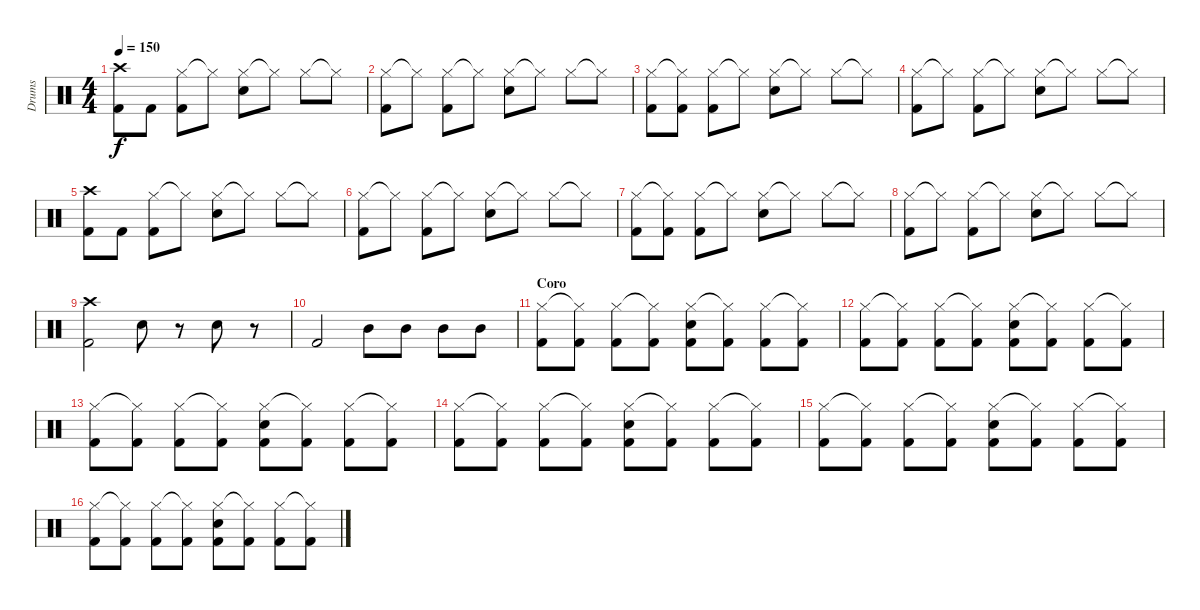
\track ("Drums" "Drums") {instrument percussion}
\staff {score}
\articulation defaults
\ts (4 4)
\tempo 150
\clef neutral
\ks c
("Kick (hit) 2" "Crash high (hit)").8{dy f} "Kick (hit) 2".8 ("Hi-Hat (closed)" "Kick (hit) 2").8 "Hi-Hat (closed)"{t}.8 ("Hi-Hat (closed)" "Snare (hit) 2").8 "Hi-Hat (closed)"{t}.8 "Hi-Hat (closed)".8 "Hi-Hat (closed)"{t}.8 |
("Hi-Hat (closed)" "Kick (hit) 2").8 "Hi-Hat (closed)"{t}.8 ("Hi-Hat (closed)" "Kick (hit) 2").8 "Hi-Hat (closed)"{t}.8 ("Hi-Hat (closed)" "Snare (hit) 2").8 "Hi-Hat (closed)"{t}.8 "Hi-Hat (closed)".8 "Hi-Hat (closed)"{t}.8 |
("Hi-Hat (closed)" "Kick (hit) 2").8 ("Hi-Hat (closed)"{t} "Kick (hit) 2").8 ("Hi-Hat (closed)" "Kick (hit) 2").8 "Hi-Hat (closed)"{t}.8 ("Hi-Hat (closed)" "Snare (hit) 2").8 "Hi-Hat (closed)"{t}.8 "Hi-Hat (closed)".8 "Hi-Hat (closed)"{t}.8 |
("Hi-Hat (closed)" "Kick (hit) 2").8 "Hi-Hat (closed)"{t}.8 ("Hi-Hat (closed)" "Kick (hit) 2").8 "Hi-Hat (closed)"{t}.8 ("Hi-Hat (closed)" "Snare (hit) 2").8 "Hi-Hat (closed)"{t}.8 "Hi-Hat (closed)".8 "Hi-Hat (closed)"{t}.8 |
("Kick (hit) 2" "Crash high (hit)").8 "Kick (hit) 2".8 ("Hi-Hat (closed)" "Kick (hit) 2").8 "Hi-Hat (closed)"{t}.8 ("Hi-Hat (closed)" "Snare (hit) 2").8 "Hi-Hat (closed)"{t}.8 "Hi-Hat (closed)".8 "Hi-Hat (closed)"{t}.8 |
("Hi-Hat (closed)" "Kick (hit) 2").8 "Hi-Hat (closed)"{t}.8 ("Hi-Hat (closed)" "Kick (hit) 2").8 "Hi-Hat (closed)"{t}.8 ("Hi-Hat (closed)" "Snare (hit) 2").8 "Hi-Hat (closed)"{t}.8 "Hi-Hat (closed)".8 "Hi-Hat (closed)"{t}.8 |
("Hi-Hat (closed)" "Kick (hit) 2").8 ("Hi-Hat (closed)"{t} "Kick (hit) 2").8 ("Hi-Hat (closed)" "Kick (hit) 2").8 "Hi-Hat (closed)"{t}.8 ("Hi-Hat (closed)" "Snare (hit) 2").8 "Hi-Hat (closed)"{t}.8 "Hi-Hat (closed)".8 "Hi-Hat (closed)"{t}.8 |
("Hi-Hat (closed)" "Kick (hit) 2").8 "Hi-Hat (closed)"{t}.8 ("Hi-Hat (closed)" "Kick (hit) 2").8 "Hi-Hat (closed)"{t}.8 ("Hi-Hat (closed)" "Snare (hit) 2").8 "Hi-Hat (closed)"{t}.8 "Hi-Hat (closed)".8 "Hi-Hat (closed)"{t}.8 |
("Kick (hit) 2" "Crash high (hit)").2 "Snare (hit) 2".8 r.8 "Snare (hit) 2".8 r.8 |
"Kick (hit) 2".2 "Mid Tom (hit)".8 "Mid Tom (hit)".8 "Mid Tom (hit)".8 "Mid Tom (hit)".8 |
\section ("" "Coro ")
("Hi-Hat (closed)" "Kick (hit) 2").8 ("Hi-Hat (closed)"{t} "Kick (hit) 2").8 ("Hi-Hat (closed)" "Kick (hit) 2").8 ("Hi-Hat (closed)"{t} "Kick (hit) 2").8 ("Hi-Hat (closed)" "Kick (hit) 2" "Snare (hit) 2").8 ("Hi-Hat (closed)"{t} "Kick (hit) 2").8 ("Hi-Hat (closed)" "Kick (hit) 2").8 ("Hi-Hat (closed)"{t} "Kick (hit) 2").8 |
("Hi-Hat (closed)" "Kick (hit) 2").8 ("Hi-Hat (closed)"{t} "Kick (hit) 2").8 ("Hi-Hat (closed)" "Kick (hit) 2").8 ("Hi-Hat (closed)"{t} "Kick (hit) 2").8 ("Hi-Hat (closed)" "Kick (hit) 2" "Snare (hit) 2").8 ("Hi-Hat (closed)"{t} "Kick (hit) 2").8 ("Hi-Hat (closed)" "Kick (hit) 2").8 ("Hi-Hat (closed)"{t} "Kick (hit) 2").8 |
("Hi-Hat (closed)" "Kick (hit) 2").8 ("Hi-Hat (closed)"{t} "Kick (hit) 2").8 ("Hi-Hat (closed)" "Kick (hit) 2").8 ("Hi-Hat (closed)"{t} "Kick (hit) 2").8 ("Hi-Hat (closed)" "Kick (hit) 2" "Snare (hit) 2").8 ("Hi-Hat (closed)"{t} "Kick (hit) 2").8 ("Hi-Hat (closed)" "Kick (hit) 2").8 ("Hi-Hat (closed)"{t} "Kick (hit) 2").8 |
("Hi-Hat (closed)" "Kick (hit) 2").8 ("Hi-Hat (closed)"{t} "Kick (hit) 2").8 ("Hi-Hat (closed)" "Kick (hit) 2").8 ("Hi-Hat (closed)"{t} "Kick (hit) 2").8 ("Hi-Hat (closed)" "Kick (hit) 2" "Snare (hit) 2").8 ("Hi-Hat (closed)"{t} "Kick (hit) 2").8 ("Hi-Hat (closed)" "Kick (hit) 2").8 ("Hi-Hat (closed)"{t} "Kick (hit) 2").8 |
("Hi-Hat (closed)" "Kick (hit) 2").8 ("Hi-Hat (closed)"{t} "Kick (hit) 2").8 ("Hi-Hat (closed)" "Kick (hit) 2").8 ("Hi-Hat (closed)"{t} "Kick (hit) 2").8 ("Hi-Hat (closed)" "Kick (hit) 2" "Snare (hit) 2").8 ("Hi-Hat (closed)"{t} "Kick (hit) 2").8 ("Hi-Hat (closed)" "Kick (hit) 2").8 ("Hi-Hat (closed)"{t} "Kick (hit) 2").8 |
("Hi-Hat (closed)" "Kick (hit) 2").8 ("Hi-Hat (closed)"{t} "Kick (hit) 2").8 ("Hi-Hat (closed)" "Kick (hit) 2").8 ("Hi-Hat (closed)"{t} "Kick (hit) 2").8 ("Hi-Hat (closed)" "Kick (hit) 2" "Snare (hit) 2").8 ("Hi-Hat (closed)"{t} "Kick (hit) 2").8 ("Hi-Hat (closed)" "Kick (hit) 2").8 ("Hi-Hat (closed)"{t} "Kick (hit) 2").8
